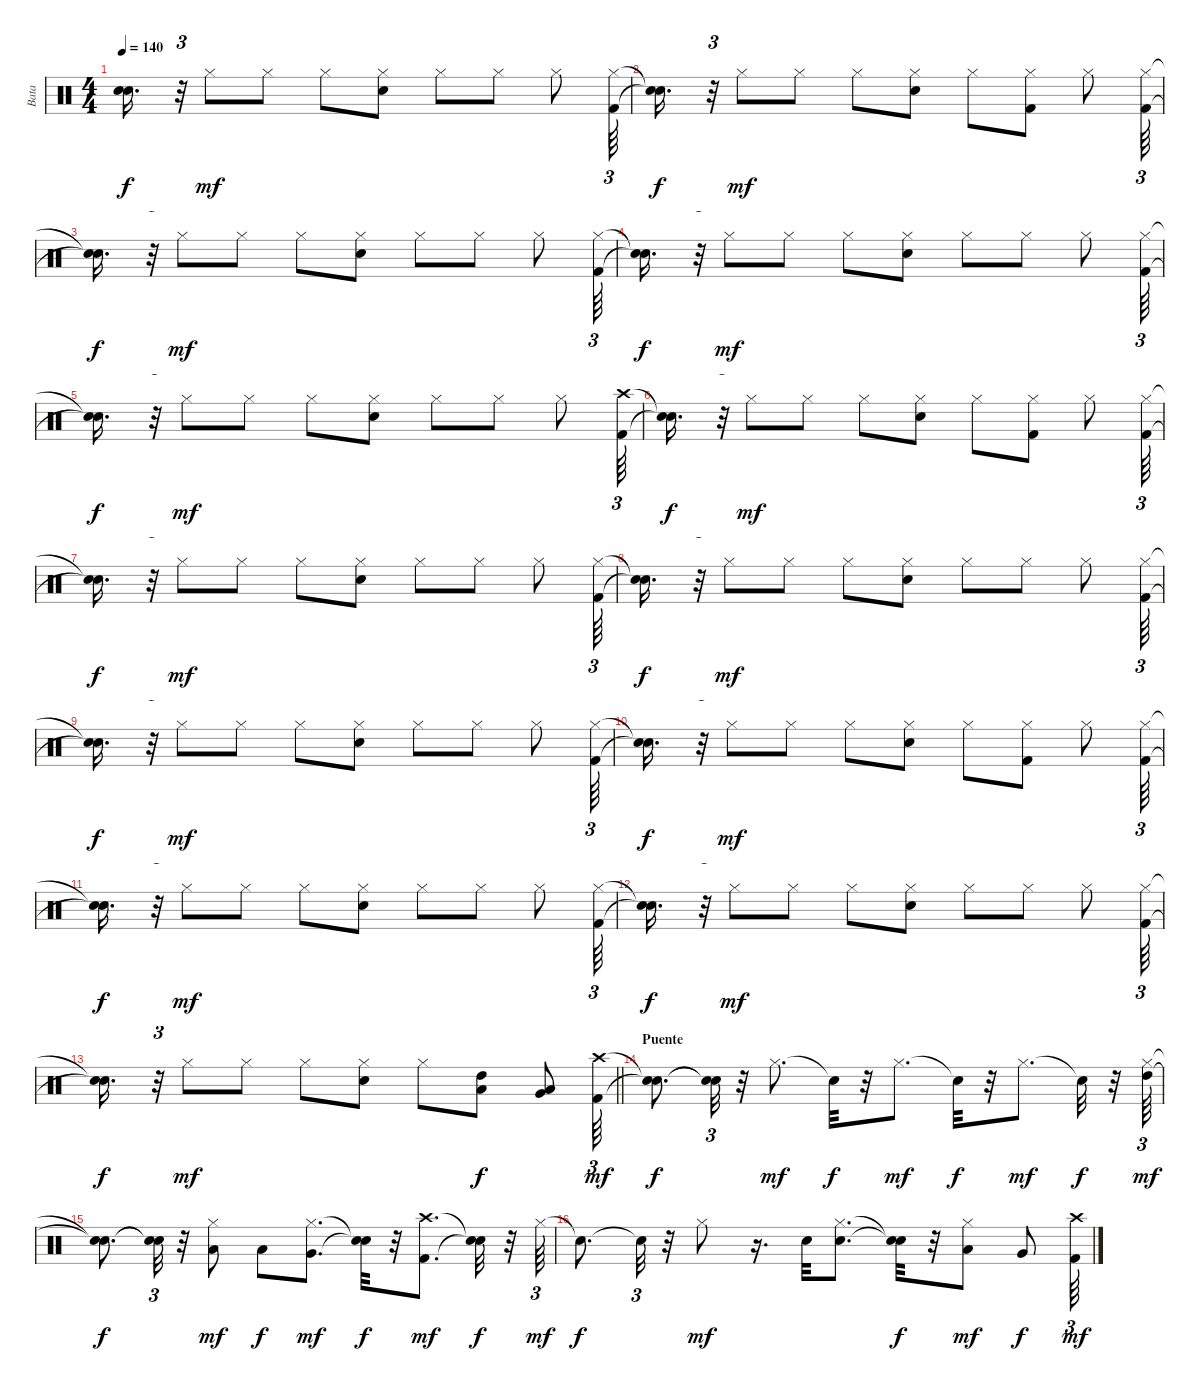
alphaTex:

\track ("Bata" "Bata") {instrument percussion}
\staff {score}
\articulation defaults
\ts (4 4)
\tempo 140
\clef neutral
\ks c
("Snare (hit)"{t} "Snare (hit)"{t}).16{d dy f} r.32{tu (3 2)} "Hi-Hat (closed)".8{dy mf} "Hi-Hat (closed)".8 "Hi-Hat (closed)".8 ("Hi-Hat (closed)" "Snare (hit) 2").8 "Hi-Hat (closed)".8 "Hi-Hat (closed)".8 "Hi-Hat (closed)".8 ("Hi-Hat (closed)" "Kick (hit) 2").64{tu (3 2)} |
("Snare (hit)"{t} "Snare (hit)"{t}).16{d dy f} r.32{tu (3 2)} "Hi-Hat (closed)".8{dy mf} "Hi-Hat (closed)".8 "Hi-Hat (closed)".8 ("Snare (hit) 2" "Hi-Hat (closed)").8 "Hi-Hat (closed)".8 ("Kick (hit) 2" "Hi-Hat (closed)").8 "Hi-Hat (closed)".8 ("Hi-Hat (closed)" "Kick (hit) 2").64{tu (3 2)} |
("Snare (hit)"{t} "Snare (hit)"{t}).16{d dy f} r.32{tu (3 2)} "Hi-Hat (closed)".8{dy mf} "Hi-Hat (closed)".8 "Hi-Hat (closed)".8 ("Snare (hit) 2" "Hi-Hat (closed)").8 "Hi-Hat (closed)".8 "Hi-Hat (closed)".8 "Hi-Hat (closed)".8 ("Hi-Hat (closed)" "Kick (hit) 2").64{tu (3 2)} |
("Snare (hit)"{t} "Snare (hit)"{t}).16{d dy f} r.32{tu (3 2)} "Hi-Hat (closed)".8{dy mf} "Hi-Hat (closed)".8 "Hi-Hat (closed)".8 ("Snare (hit) 2" "Hi-Hat (closed)").8 "Hi-Hat (closed)".8 "Hi-Hat (closed)".8 "Hi-Hat (closed)".8 ("Hi-Hat (closed)" "Kick (hit) 2").64{tu (3 2)} |
("Snare (hit)"{t} "Snare (hit)"{t}).16{d dy f} r.32{tu (3 2)} "Hi-Hat (closed)".8{dy mf} "Hi-Hat (closed)".8 "Hi-Hat (closed)".8 ("Snare (hit) 2" "Hi-Hat (closed)").8 "Hi-Hat (closed)".8 "Hi-Hat (closed)".8 "Hi-Hat (closed)".8 ("Crash high (hit)" "Kick (hit) 2").64{tu (3 2)} |
("Snare (hit)"{t} "Snare (hit)"{t}).16{d dy f} r.32{tu (3 2)} "Hi-Hat (closed)".8{dy mf} "Hi-Hat (closed)".8 "Hi-Hat (closed)".8 ("Snare (hit) 2" "Hi-Hat (closed)").8 "Hi-Hat (closed)".8 ("Hi-Hat (closed)" "Kick (hit) 2").8 "Hi-Hat (closed)".8 ("Hi-Hat (closed)" "Kick (hit) 2").64{tu (3 2)} |
("Snare (hit)"{t} "Snare (hit)"{t}).16{d dy f} r.32{tu (3 2)} "Hi-Hat (closed)".8{dy mf} "Hi-Hat (closed)".8 "Hi-Hat (closed)".8 ("Snare (hit) 2" "Hi-Hat (closed)").8 "Hi-Hat (closed)".8 "Hi-Hat (closed)".8 "Hi-Hat (closed)".8 ("Hi-Hat (closed)" "Kick (hit) 2").64{tu (3 2)} |
("Snare (hit)"{t} "Snare (hit)"{t}).16{d dy f} r.32{tu (3 2)} "Hi-Hat (closed)".8{dy mf} "Hi-Hat (closed)".8 "Hi-Hat (closed)".8 ("Hi-Hat (closed)" "Snare (hit) 2").8 "Hi-Hat (closed)".8 "Hi-Hat (closed)".8 "Hi-Hat (closed)".8 ("Kick (hit) 2" "Hi-Hat (closed)").64{tu (3 2)} |
("Snare (hit)"{t} "Snare (hit)"{t}).16{d dy f} r.32{tu (3 2)} "Hi-Hat (closed)".8{dy mf} "Hi-Hat (closed)".8 "Hi-Hat (closed)".8 ("Hi-Hat (closed)" "Snare (hit) 2").8 "Hi-Hat (closed)".8 "Hi-Hat (closed)".8 "Hi-Hat (closed)".8 ("Hi-Hat (closed)" "Kick (hit) 2").64{tu (3 2)} |
("Snare (hit)"{t} "Snare (hit)"{t}).16{d dy f} r.32{tu (3 2)} "Hi-Hat (closed)".8{dy mf} "Hi-Hat (closed)".8 "Hi-Hat (closed)".8 ("Hi-Hat (closed)" "Snare (hit) 2").8 "Hi-Hat (closed)".8 ("Kick (hit) 2" "Hi-Hat (closed)").8 "Hi-Hat (closed)".8 ("Kick (hit) 2" "Hi-Hat (closed)").64{tu (3 2)} |
("Snare (hit)"{t} "Snare (hit)"{t}).16{d dy f} r.32{tu (3 2)} "Hi-Hat (closed)".8{dy mf} "Hi-Hat (closed)".8 "Hi-Hat (closed)".8 ("Hi-Hat (closed)" "Snare (hit) 2").8 "Hi-Hat (closed)".8 "Hi-Hat (closed)".8 "Hi-Hat (closed)".8 ("Hi-Hat (closed)" "Kick (hit) 2").64{tu (3 2)} |
("Snare (hit)"{t} "Snare (hit)"{t}).16{d dy f} r.32{tu (3 2)} "Hi-Hat (closed)".8{dy mf} "Hi-Hat (closed)".8 "Hi-Hat (closed)".8 ("Hi-Hat (closed)" "Snare (hit) 2").8 "Hi-Hat (closed)".8 "Hi-Hat (closed)".8 "Hi-Hat (closed)".8 ("Hi-Hat (closed)" "Kick (hit) 2").64{tu (3 2)} |
\barLineRight lightlight
("Snare (hit)"{t} "Snare (hit)"{t}).16{d dy f} r.32{tu (3 2)} "Hi-Hat (closed)".8{dy mf} "Hi-Hat (closed)".8 "Hi-Hat (closed)".8 ("Hi-Hat (closed)" "Snare (hit) 2").8 "Hi-Hat (closed)".8 ("High Tom (hit)" "Low Tom (hit)").8{dy f} ("Low Tom (hit)" "Very Low Tom (hit)").8 ("Crash high (hit)" "Kick (hit) 2").64{tu (3 2) dy mf} |
\section ("" "Puente")
("Snare (hit)"{t} "Snare (hit)"{t}).8{d dy f} ("Snare (hit)"{t} "Snare (hit)"{t}).32{tu (3 2)} r.32 "Hi-Hat (closed)".8{d dy mf} "Snare (hit)"{t}.32{dy f} r.32 "Hi-Hat (closed)".8{d dy mf} "Snare (hit)"{t}.32{dy f} r.32 "Hi-Hat (closed)".8{d dy mf} "Snare (hit)"{t}.32{dy f} r.32 ("Hi-Hat (closed)" "High Tom (hit)").64{tu (3 2) dy mf} |
("Snare (hit)"{t} "Snare (hit)"{t}).8{d dy f} ("Snare (hit)"{t} "Snare (hit)"{t}).32{tu (3 2)} r.32 ("Hi-Hat (closed)" "Low Tom (hit)").8{dy mf} "Low Tom (hit)".8{dy f} ("Hi-Hat (closed)" "Very Low Tom (hit)").8{d dy mf} ("Snare (hit)"{t} "Snare (hit)"{t}).32{dy f} r.32 ("Kick (hit) 2" "Crash high (hit)").8{d dy mf} ("Snare (hit)"{t} "Snare (hit)"{t}).32{dy f} r.32 "Hi-Hat (closed)".64{tu (3 2) dy mf} |
"Snare (hit)"{t}.8{d dy f} "Snare (hit)"{t}.32{tu (3 2)} r.32 "Hi-Hat (closed)".8{dy mf} r.16{d} "Snare (hit) 2".32 ("Hi-Hat (closed)" "Snare (hit) 2").8{d} ("Snare (hit)"{t} "Snare (hit)"{t}).32{dy f} r.32 ("Hi-Hat (closed)" "Low Tom (hit)").8{dy mf} "Very Low Tom (hit)".8{dy f} ("Kick (hit) 2" "Crash high (hit)").64{tu (3 2) dy mf}
